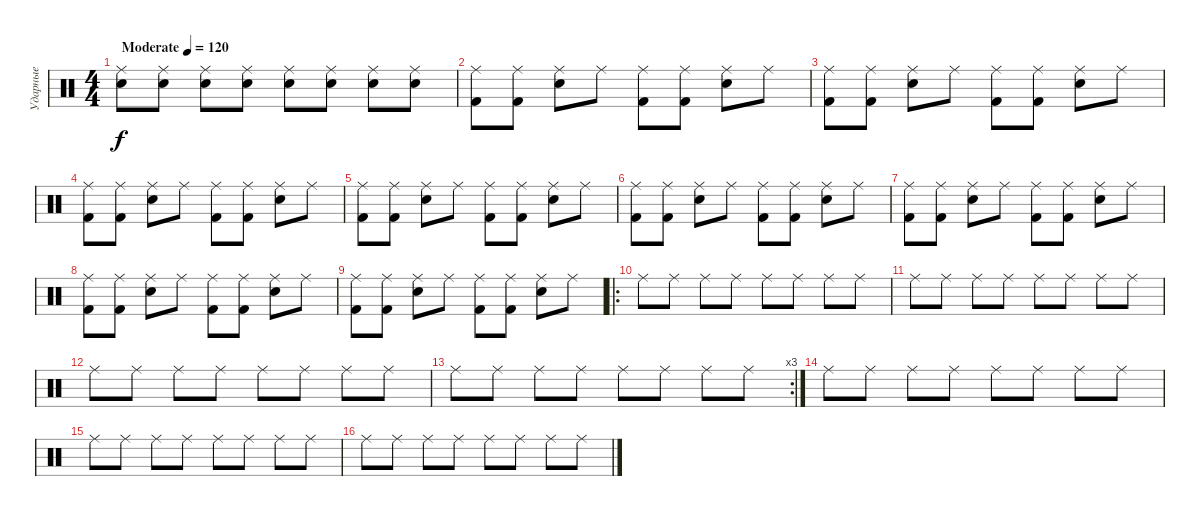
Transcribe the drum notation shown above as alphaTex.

\track ("Ударные" "Ударные") {instrument percussion}
\staff {score}
\articulation defaults
\ts (4 4)
\tempo (120 "Moderate")
\clef neutral
\ks c
("Ride (middle)" "Snare (hit) 2").8{dy f} ("Ride (middle)" "Snare (hit) 2").8 ("Ride (middle)" "Snare (hit) 2").8 ("Ride (middle)" "Snare (hit) 2").8 ("Ride (middle)" "Snare (hit) 2").8 ("Ride (middle)" "Snare (hit) 2").8 ("Ride (middle)" "Snare (hit) 2").8 ("Ride (middle)" "Snare (hit) 2").8 |
("Ride (middle)" "Kick (hit) 2").8 ("Ride (middle)" "Kick (hit) 2").8 ("Ride (middle)" "Snare (hit) 2").8 "Ride (middle)".8 ("Ride (middle)" "Kick (hit) 2").8 ("Ride (middle)" "Kick (hit) 2").8 ("Ride (middle)" "Snare (hit) 2").8 "Ride (middle)".8 |
("Ride (middle)" "Kick (hit) 2").8 ("Ride (middle)" "Kick (hit) 2").8 ("Ride (middle)" "Snare (hit) 2").8 "Ride (middle)".8 ("Ride (middle)" "Kick (hit) 2").8 ("Ride (middle)" "Kick (hit) 2").8 ("Ride (middle)" "Snare (hit) 2").8 "Ride (middle)".8 |
("Ride (middle)" "Kick (hit) 2").8 ("Ride (middle)" "Kick (hit) 2").8 ("Ride (middle)" "Snare (hit) 2").8 "Ride (middle)".8 ("Ride (middle)" "Kick (hit) 2").8 ("Ride (middle)" "Kick (hit) 2").8 ("Ride (middle)" "Snare (hit) 2").8 "Ride (middle)".8 |
("Ride (middle)" "Kick (hit) 2").8 ("Ride (middle)" "Kick (hit) 2").8 ("Ride (middle)" "Snare (hit) 2").8 "Ride (middle)".8 ("Ride (middle)" "Kick (hit) 2").8 ("Ride (middle)" "Kick (hit) 2").8 ("Ride (middle)" "Snare (hit) 2").8 "Ride (middle)".8 |
("Ride (middle)" "Kick (hit) 2").8 ("Ride (middle)" "Kick (hit) 2").8 ("Ride (middle)" "Snare (hit) 2").8 "Ride (middle)".8 ("Ride (middle)" "Kick (hit) 2").8 ("Ride (middle)" "Kick (hit) 2").8 ("Ride (middle)" "Snare (hit) 2").8 "Ride (middle)".8 |
("Ride (middle)" "Kick (hit) 2").8 ("Ride (middle)" "Kick (hit) 2").8 ("Ride (middle)" "Snare (hit) 2").8 "Ride (middle)".8 ("Ride (middle)" "Kick (hit) 2").8 ("Ride (middle)" "Kick (hit) 2").8 ("Ride (middle)" "Snare (hit) 2").8 "Ride (middle)".8 |
("Ride (middle)" "Kick (hit) 2").8 ("Ride (middle)" "Kick (hit) 2").8 ("Ride (middle)" "Snare (hit) 2").8 "Ride (middle)".8 ("Ride (middle)" "Kick (hit) 2").8 ("Ride (middle)" "Kick (hit) 2").8 ("Ride (middle)" "Snare (hit) 2").8 "Ride (middle)".8 |
("Ride (middle)" "Kick (hit) 2").8 ("Ride (middle)" "Kick (hit) 2").8 ("Ride (middle)" "Snare (hit) 2").8 "Ride (middle)".8 ("Ride (middle)" "Kick (hit) 2").8 ("Ride (middle)" "Kick (hit) 2").8 ("Ride (middle)" "Snare (hit) 2").8 "Ride (middle)".8 |
\ro "Ride (middle)".8 "Ride (middle)".8 "Ride (middle)".8 "Ride (middle)".8 "Ride (middle)".8 "Ride (middle)".8 "Ride (middle)".8 "Ride (middle)".8
|
"Ride (middle)".8 "Ride (middle)".8 "Ride (middle)".8 "Ride (middle)".8 "Ride (middle)".8 "Ride (middle)".8 "Ride (middle)".8 "Ride (middle)".8 |
"Ride (middle)".8 "Ride (middle)".8 "Ride (middle)".8 "Ride (middle)".8 "Ride (middle)".8 "Ride (middle)".8 "Ride (middle)".8 "Ride (middle)".8 |
\rc 3 "Ride (middle)".8 "Ride (middle)".8 "Ride (middle)".8 "Ride (middle)".8 "Ride (middle)".8 "Ride (middle)".8 "Ride (middle)".8 "Ride (middle)".8
|
"Ride (middle)".8 "Ride (middle)".8 "Ride (middle)".8 "Ride (middle)".8 "Ride (middle)".8 "Ride (middle)".8 "Ride (middle)".8 "Ride (middle)".8 |
"Ride (middle)".8 "Ride (middle)".8 "Ride (middle)".8 "Ride (middle)".8 "Ride (middle)".8 "Ride (middle)".8 "Ride (middle)".8 "Ride (middle)".8 |
"Ride (middle)".8 "Ride (middle)".8 "Ride (middle)".8 "Ride (middle)".8 "Ride (middle)".8 "Ride (middle)".8 "Ride (middle)".8 "Ride (middle)".8
